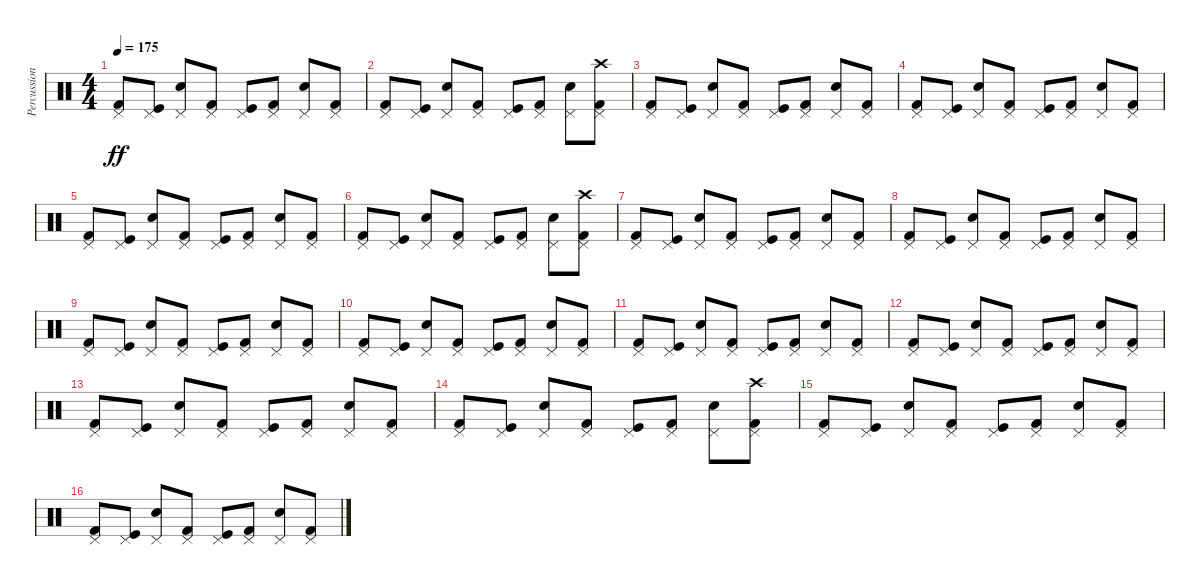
\track ("Percussion (Karlo Žuliæ)" "Percussion") {instrument percussion}
\staff {score}
\articulation defaults
\ts (4 4)
\tempo 175
\clef neutral
\ks c
("Pedal Hi-Hat (hit)" "Kick (hit) 2").8{dy ff} ("Pedal Hi-Hat (hit)" "Kick (hit)").8 ("Pedal Hi-Hat (hit)" "Snare (hit) 2").8 ("Pedal Hi-Hat (hit)" "Kick (hit) 2").8 ("Pedal Hi-Hat (hit)" "Kick (hit)").8 ("Pedal Hi-Hat (hit)" "Kick (hit) 2").8 ("Pedal Hi-Hat (hit)" "Snare (hit) 2").8 ("Pedal Hi-Hat (hit)" "Kick (hit) 2").8 |
("Pedal Hi-Hat (hit)" "Kick (hit) 2").8 ("Pedal Hi-Hat (hit)" "Kick (hit)").8 ("Pedal Hi-Hat (hit)" "Snare (hit) 2").8 ("Pedal Hi-Hat (hit)" "Kick (hit) 2").8 ("Pedal Hi-Hat (hit)" "Kick (hit)").8 ("Pedal Hi-Hat (hit)" "Kick (hit) 2").8 ("Pedal Hi-Hat (hit)" "Snare (hit) 2").8 ("Pedal Hi-Hat (hit)" "Kick (hit) 2" "Crash high (hit)").8 |
("Pedal Hi-Hat (hit)" "Kick (hit) 2").8 ("Pedal Hi-Hat (hit)" "Kick (hit)").8 ("Pedal Hi-Hat (hit)" "Snare (hit) 2").8 ("Pedal Hi-Hat (hit)" "Kick (hit) 2").8 ("Pedal Hi-Hat (hit)" "Kick (hit)").8 ("Pedal Hi-Hat (hit)" "Kick (hit) 2").8 ("Pedal Hi-Hat (hit)" "Snare (hit) 2").8 ("Pedal Hi-Hat (hit)" "Kick (hit) 2").8 |
("Pedal Hi-Hat (hit)" "Kick (hit) 2").8 ("Pedal Hi-Hat (hit)" "Kick (hit)").8 ("Pedal Hi-Hat (hit)" "Snare (hit) 2").8 ("Pedal Hi-Hat (hit)" "Kick (hit) 2").8 ("Pedal Hi-Hat (hit)" "Kick (hit)").8 ("Pedal Hi-Hat (hit)" "Kick (hit) 2").8 ("Pedal Hi-Hat (hit)" "Snare (hit) 2").8 ("Pedal Hi-Hat (hit)" "Kick (hit) 2").8 |
("Pedal Hi-Hat (hit)" "Kick (hit) 2").8 ("Pedal Hi-Hat (hit)" "Kick (hit)").8 ("Pedal Hi-Hat (hit)" "Snare (hit) 2").8 ("Pedal Hi-Hat (hit)" "Kick (hit) 2").8 ("Pedal Hi-Hat (hit)" "Kick (hit)").8 ("Pedal Hi-Hat (hit)" "Kick (hit) 2").8 ("Pedal Hi-Hat (hit)" "Snare (hit) 2").8 ("Pedal Hi-Hat (hit)" "Kick (hit) 2").8 |
("Pedal Hi-Hat (hit)" "Kick (hit) 2").8 ("Pedal Hi-Hat (hit)" "Kick (hit)").8 ("Pedal Hi-Hat (hit)" "Snare (hit) 2").8 ("Pedal Hi-Hat (hit)" "Kick (hit) 2").8 ("Pedal Hi-Hat (hit)" "Kick (hit)").8 ("Pedal Hi-Hat (hit)" "Kick (hit) 2").8 ("Pedal Hi-Hat (hit)" "Snare (hit) 2").8 ("Pedal Hi-Hat (hit)" "Kick (hit) 2" "Crash high (hit)").8 |
("Pedal Hi-Hat (hit)" "Kick (hit) 2").8 ("Pedal Hi-Hat (hit)" "Kick (hit)").8 ("Pedal Hi-Hat (hit)" "Snare (hit) 2").8 ("Pedal Hi-Hat (hit)" "Kick (hit) 2").8 ("Pedal Hi-Hat (hit)" "Kick (hit)").8 ("Pedal Hi-Hat (hit)" "Kick (hit) 2").8 ("Pedal Hi-Hat (hit)" "Snare (hit) 2").8 ("Pedal Hi-Hat (hit)" "Kick (hit) 2").8 |
("Pedal Hi-Hat (hit)" "Kick (hit) 2").8 ("Pedal Hi-Hat (hit)" "Kick (hit)").8 ("Pedal Hi-Hat (hit)" "Snare (hit) 2").8 ("Pedal Hi-Hat (hit)" "Kick (hit) 2").8 ("Pedal Hi-Hat (hit)" "Kick (hit)").8 ("Pedal Hi-Hat (hit)" "Kick (hit) 2").8 ("Pedal Hi-Hat (hit)" "Snare (hit) 2").8 ("Pedal Hi-Hat (hit)" "Kick (hit) 2").8 |
("Pedal Hi-Hat (hit)" "Kick (hit) 2").8 ("Pedal Hi-Hat (hit)" "Kick (hit)").8 ("Pedal Hi-Hat (hit)" "Snare (hit) 2").8 ("Pedal Hi-Hat (hit)" "Kick (hit) 2").8 ("Pedal Hi-Hat (hit)" "Kick (hit)").8 ("Pedal Hi-Hat (hit)" "Kick (hit) 2").8 ("Pedal Hi-Hat (hit)" "Snare (hit) 2").8 ("Pedal Hi-Hat (hit)" "Kick (hit) 2").8 |
("Pedal Hi-Hat (hit)" "Kick (hit) 2").8 ("Pedal Hi-Hat (hit)" "Kick (hit)").8 ("Pedal Hi-Hat (hit)" "Snare (hit) 2").8 ("Pedal Hi-Hat (hit)" "Kick (hit) 2").8 ("Pedal Hi-Hat (hit)" "Kick (hit)").8 ("Pedal Hi-Hat (hit)" "Kick (hit) 2").8 ("Pedal Hi-Hat (hit)" "Snare (hit) 2").8 ("Pedal Hi-Hat (hit)" "Kick (hit) 2").8 |
("Pedal Hi-Hat (hit)" "Kick (hit) 2").8 ("Pedal Hi-Hat (hit)" "Kick (hit)").8 ("Pedal Hi-Hat (hit)" "Snare (hit) 2").8 ("Pedal Hi-Hat (hit)" "Kick (hit) 2").8 ("Pedal Hi-Hat (hit)" "Kick (hit)").8 ("Pedal Hi-Hat (hit)" "Kick (hit) 2").8 ("Pedal Hi-Hat (hit)" "Snare (hit) 2").8 ("Pedal Hi-Hat (hit)" "Kick (hit) 2").8 |
("Pedal Hi-Hat (hit)" "Kick (hit) 2").8 ("Pedal Hi-Hat (hit)" "Kick (hit)").8 ("Pedal Hi-Hat (hit)" "Snare (hit) 2").8 ("Pedal Hi-Hat (hit)" "Kick (hit) 2").8 ("Pedal Hi-Hat (hit)" "Kick (hit)").8 ("Pedal Hi-Hat (hit)" "Kick (hit) 2").8 ("Pedal Hi-Hat (hit)" "Snare (hit) 2").8 ("Pedal Hi-Hat (hit)" "Kick (hit) 2").8 |
("Pedal Hi-Hat (hit)" "Kick (hit) 2").8 ("Pedal Hi-Hat (hit)" "Kick (hit)").8 ("Pedal Hi-Hat (hit)" "Snare (hit) 2").8 ("Pedal Hi-Hat (hit)" "Kick (hit) 2").8 ("Pedal Hi-Hat (hit)" "Kick (hit)").8 ("Pedal Hi-Hat (hit)" "Kick (hit) 2").8 ("Pedal Hi-Hat (hit)" "Snare (hit) 2").8 ("Pedal Hi-Hat (hit)" "Kick (hit) 2").8 |
("Pedal Hi-Hat (hit)" "Kick (hit) 2").8 ("Pedal Hi-Hat (hit)" "Kick (hit)").8 ("Pedal Hi-Hat (hit)" "Snare (hit) 2").8 ("Pedal Hi-Hat (hit)" "Kick (hit) 2").8 ("Pedal Hi-Hat (hit)" "Kick (hit)").8 ("Pedal Hi-Hat (hit)" "Kick (hit) 2").8 ("Pedal Hi-Hat (hit)" "Snare (hit) 2").8 ("Pedal Hi-Hat (hit)" "Kick (hit) 2" "Crash high (hit)").8 |
("Pedal Hi-Hat (hit)" "Kick (hit) 2").8 ("Pedal Hi-Hat (hit)" "Kick (hit)").8 ("Pedal Hi-Hat (hit)" "Snare (hit) 2").8 ("Pedal Hi-Hat (hit)" "Kick (hit) 2").8 ("Pedal Hi-Hat (hit)" "Kick (hit)").8 ("Pedal Hi-Hat (hit)" "Kick (hit) 2").8 ("Pedal Hi-Hat (hit)" "Snare (hit) 2").8 ("Pedal Hi-Hat (hit)" "Kick (hit) 2").8 |
("Pedal Hi-Hat (hit)" "Kick (hit) 2").8 ("Pedal Hi-Hat (hit)" "Kick (hit)").8 ("Pedal Hi-Hat (hit)" "Snare (hit) 2").8 ("Pedal Hi-Hat (hit)" "Kick (hit) 2").8 ("Pedal Hi-Hat (hit)" "Kick (hit)").8 ("Pedal Hi-Hat (hit)" "Kick (hit) 2").8 ("Pedal Hi-Hat (hit)" "Snare (hit) 2").8 ("Pedal Hi-Hat (hit)" "Kick (hit) 2").8
